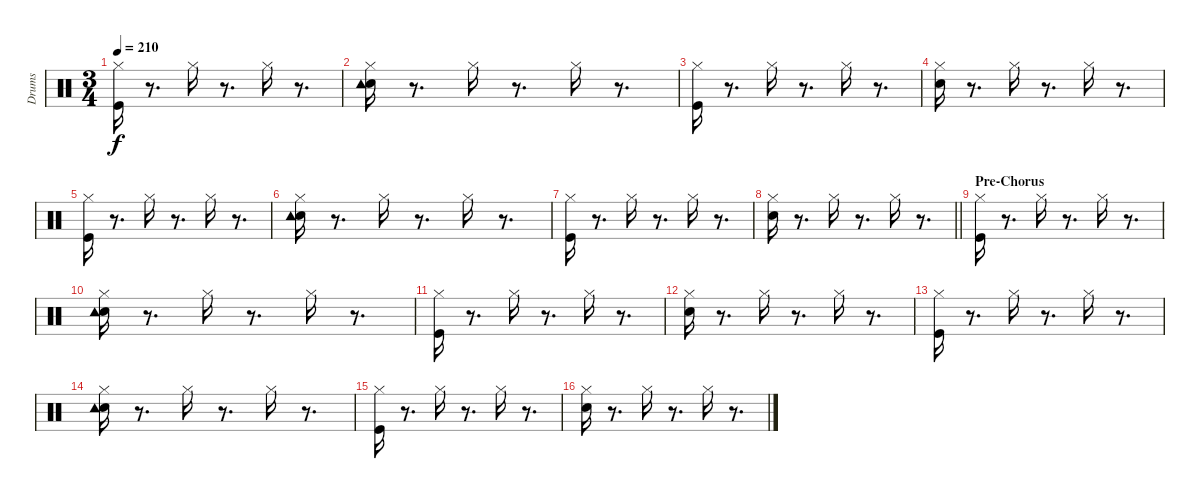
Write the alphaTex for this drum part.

\track ("Drums" "Drums") {instrument percussion}
\staff {score}
\articulation defaults
\ts (3 4)
\tempo 210
\clef neutral
\ks c
("Kick (hit)" "Hi-Hat (closed)").16{dy f} r.8{d} "Hi-Hat (closed)".16 r.8{d} "Hi-Hat (closed)".16 r.8{d} |
("Hi-Hat (closed)" "Electric Snare (hit)" "Tambourine (hit)").16 r.8{d} "Hi-Hat (closed)".16 r.8{d} "Hi-Hat (closed)".16 r.8{d} |
("Kick (hit)" "Hi-Hat (closed)").16 r.8{d} "Hi-Hat (closed)".16 r.8{d} "Hi-Hat (closed)".16 r.8{d} |
("Hi-Hat (closed)" "Electric Snare (hit)").16 r.8{d} "Hi-Hat (closed)".16 r.8{d} "Hi-Hat (closed)".16 r.8{d} |
("Kick (hit)" "Hi-Hat (closed)").16 r.8{d} "Hi-Hat (closed)".16 r.8{d} "Hi-Hat (closed)".16 r.8{d} |
("Hi-Hat (closed)" "Electric Snare (hit)" "Tambourine (hit)").16 r.8{d} "Hi-Hat (closed)".16 r.8{d} "Hi-Hat (closed)".16 r.8{d} |
("Kick (hit)" "Hi-Hat (closed)").16 r.8{d} "Hi-Hat (closed)".16 r.8{d} "Hi-Hat (closed)".16 r.8{d} |
\barLineRight lightlight
("Hi-Hat (closed)" "Electric Snare (hit)").16 r.8{d} "Hi-Hat (closed)".16 r.8{d} "Hi-Hat (closed)".16 r.8{d} |
\section ("" "Pre-Chorus")
("Kick (hit)" "Hi-Hat (closed)").16 r.8{d} "Hi-Hat (closed)".16 r.8{d} "Hi-Hat (closed)".16 r.8{d} |
("Hi-Hat (closed)" "Electric Snare (hit)" "Tambourine (hit)").16 r.8{d} "Hi-Hat (closed)".16 r.8{d} "Hi-Hat (closed)".16 r.8{d} |
("Kick (hit)" "Hi-Hat (closed)").16 r.8{d} "Hi-Hat (closed)".16 r.8{d} "Hi-Hat (closed)".16 r.8{d} |
("Hi-Hat (closed)" "Electric Snare (hit)").16 r.8{d} "Hi-Hat (closed)".16 r.8{d} "Hi-Hat (closed)".16 r.8{d} |
("Kick (hit)" "Hi-Hat (closed)").16 r.8{d} "Hi-Hat (closed)".16 r.8{d} "Hi-Hat (closed)".16 r.8{d} |
("Hi-Hat (closed)" "Electric Snare (hit)" "Tambourine (hit)").16 r.8{d} "Hi-Hat (closed)".16 r.8{d} "Hi-Hat (closed)".16 r.8{d} |
("Kick (hit)" "Hi-Hat (closed)").16 r.8{d} "Hi-Hat (closed)".16 r.8{d} "Hi-Hat (closed)".16 r.8{d} |
("Hi-Hat (closed)" "Electric Snare (hit)").16 r.8{d} "Hi-Hat (closed)".16 r.8{d} "Hi-Hat (closed)".16 r.8{d}
